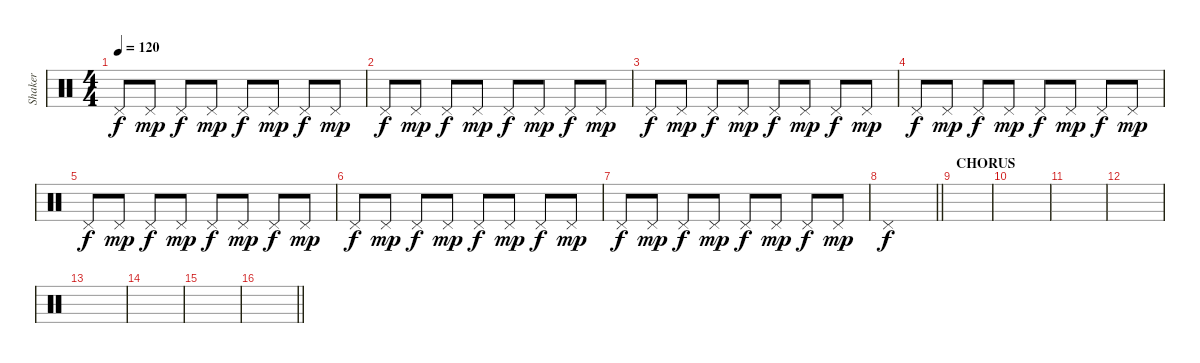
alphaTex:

\track ("Shaker" "Shaker") {instrument percussion}
\staff {score}
\articulation defaults
\ts (4 4)
\tempo 120
\clef neutral
\ks c "Pedal Hi-Hat (hit)".8{dy f} "Pedal Hi-Hat (hit)".8{dy mp} "Pedal Hi-Hat (hit)".8{dy f} "Pedal Hi-Hat (hit)".8{dy mp} "Pedal Hi-Hat (hit)".8{dy f} "Pedal Hi-Hat (hit)".8{dy mp} "Pedal Hi-Hat (hit)".8{dy f} "Pedal Hi-Hat (hit)".8{dy mp}
|
"Pedal Hi-Hat (hit)".8{dy f} "Pedal Hi-Hat (hit)".8{dy mp} "Pedal Hi-Hat (hit)".8{dy f} "Pedal Hi-Hat (hit)".8{dy mp} "Pedal Hi-Hat (hit)".8{dy f} "Pedal Hi-Hat (hit)".8{dy mp} "Pedal Hi-Hat (hit)".8{dy f} "Pedal Hi-Hat (hit)".8{dy mp} |
"Pedal Hi-Hat (hit)".8{dy f} "Pedal Hi-Hat (hit)".8{dy mp} "Pedal Hi-Hat (hit)".8{dy f} "Pedal Hi-Hat (hit)".8{dy mp} "Pedal Hi-Hat (hit)".8{dy f} "Pedal Hi-Hat (hit)".8{dy mp} "Pedal Hi-Hat (hit)".8{dy f} "Pedal Hi-Hat (hit)".8{dy mp} |
"Pedal Hi-Hat (hit)".8{dy f} "Pedal Hi-Hat (hit)".8{dy mp} "Pedal Hi-Hat (hit)".8{dy f} "Pedal Hi-Hat (hit)".8{dy mp} "Pedal Hi-Hat (hit)".8{dy f} "Pedal Hi-Hat (hit)".8{dy mp} "Pedal Hi-Hat (hit)".8{dy f} "Pedal Hi-Hat (hit)".8{dy mp} |
"Pedal Hi-Hat (hit)".8{dy f} "Pedal Hi-Hat (hit)".8{dy mp} "Pedal Hi-Hat (hit)".8{dy f} "Pedal Hi-Hat (hit)".8{dy mp} "Pedal Hi-Hat (hit)".8{dy f} "Pedal Hi-Hat (hit)".8{dy mp} "Pedal Hi-Hat (hit)".8{dy f} "Pedal Hi-Hat (hit)".8{dy mp} |
"Pedal Hi-Hat (hit)".8{dy f} "Pedal Hi-Hat (hit)".8{dy mp} "Pedal Hi-Hat (hit)".8{dy f} "Pedal Hi-Hat (hit)".8{dy mp} "Pedal Hi-Hat (hit)".8{dy f} "Pedal Hi-Hat (hit)".8{dy mp} "Pedal Hi-Hat (hit)".8{dy f} "Pedal Hi-Hat (hit)".8{dy mp} |
"Pedal Hi-Hat (hit)".8{dy f} "Pedal Hi-Hat (hit)".8{dy mp} "Pedal Hi-Hat (hit)".8{dy f} "Pedal Hi-Hat (hit)".8{dy mp} "Pedal Hi-Hat (hit)".8{dy f} "Pedal Hi-Hat (hit)".8{dy mp} "Pedal Hi-Hat (hit)".8{dy f} "Pedal Hi-Hat (hit)".8{dy mp} |
\barLineRight lightlight "Pedal Hi-Hat (hit)".1{dy f}
|
\section ("" "CHORUS")
|
|
|
|
|
|
|
\barLineRight lightlight
